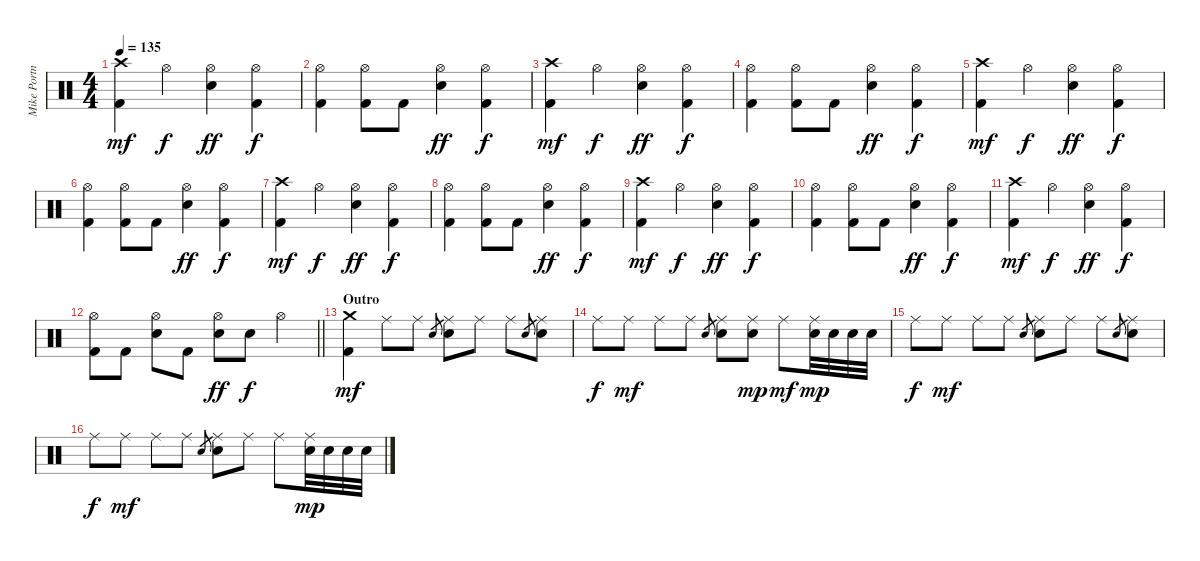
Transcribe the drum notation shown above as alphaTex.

\track ("Mike Portnoy" "Mike Portn") {instrument percussion}
\staff {score}
\articulation defaults
\ts (4 4)
\tempo 135
\clef neutral
\ks c
("Crash high (hit)" "Kick (hit) 2").4{dy mf} "Hi-Hat (open)".4{dy f} ("Hi-Hat (open)" "Electric Snare (hit)").4{dy ff} ("Hi-Hat (open)" "Kick (hit) 2").4{dy f} |
("Hi-Hat (open)" "Kick (hit) 2").4 ("Hi-Hat (open)" "Kick (hit) 2").8 "Kick (hit) 2".8 ("Hi-Hat (open)" "Electric Snare (hit)").4{dy ff} ("Hi-Hat (open)" "Kick (hit) 2").4{dy f} |
("Crash high (hit)" "Kick (hit) 2").4{dy mf} "Hi-Hat (open)".4{dy f} ("Hi-Hat (open)" "Electric Snare (hit)").4{dy ff} ("Hi-Hat (open)" "Kick (hit) 2").4{dy f} |
("Hi-Hat (open)" "Kick (hit) 2").4 ("Hi-Hat (open)" "Kick (hit) 2").8 "Kick (hit) 2".8 ("Hi-Hat (open)" "Electric Snare (hit)").4{dy ff} ("Hi-Hat (open)" "Kick (hit) 2").4{dy f} |
("Crash high (hit)" "Kick (hit) 2").4{dy mf} "Hi-Hat (open)".4{dy f} ("Hi-Hat (open)" "Electric Snare (hit)").4{dy ff} ("Hi-Hat (open)" "Kick (hit) 2").4{dy f} |
("Hi-Hat (open)" "Kick (hit) 2").4 ("Hi-Hat (open)" "Kick (hit) 2").8 "Kick (hit) 2".8 ("Hi-Hat (open)" "Electric Snare (hit)").4{dy ff} ("Hi-Hat (open)" "Kick (hit) 2").4{dy f} |
("Crash high (hit)" "Kick (hit) 2").4{dy mf} "Hi-Hat (open)".4{dy f} ("Hi-Hat (open)" "Electric Snare (hit)").4{dy ff} ("Hi-Hat (open)" "Kick (hit) 2").4{dy f} |
("Hi-Hat (open)" "Kick (hit) 2").4 ("Hi-Hat (open)" "Kick (hit) 2").8 "Kick (hit) 2".8 ("Hi-Hat (open)" "Electric Snare (hit)").4{dy ff} ("Hi-Hat (open)" "Kick (hit) 2").4{dy f} |
("Crash high (hit)" "Kick (hit) 2").4{dy mf} "Hi-Hat (open)".4{dy f} ("Hi-Hat (open)" "Electric Snare (hit)").4{dy ff} ("Hi-Hat (open)" "Kick (hit) 2").4{dy f} |
("Hi-Hat (open)" "Kick (hit) 2").4 ("Hi-Hat (open)" "Kick (hit) 2").8 "Kick (hit) 2".8 ("Hi-Hat (open)" "Electric Snare (hit)").4{dy ff} ("Hi-Hat (open)" "Kick (hit) 2").4{dy f} |
("Crash high (hit)" "Kick (hit) 2").4{dy mf} "Hi-Hat (open)".4{dy f} ("Hi-Hat (open)" "Electric Snare (hit)").4{dy ff} ("Hi-Hat (open)" "Kick (hit) 2").4{dy f} |
\barLineRight lightlight
("Hi-Hat (open)" "Kick (hit) 2").8 "Kick (hit) 2".8 ("Hi-Hat (open)" "Electric Snare (hit)").8 "Kick (hit) 2".8 ("Hi-Hat (open)" "Electric Snare (hit)").8{dy ff} "Electric Snare (hit)".8{dy f} "Hi-Hat (open)".4 |
\section ("" "Outro")
("Crash medium (hit)" "Kick (hit) 2").4{dy mf} "Ride (middle)".8 "Ride (middle)".8 "Electric Snare (hit)".8{gr} ("Ride (middle)" "Electric Snare (hit)").8 "Ride (middle)".8 "Ride (middle)".8 "Electric Snare (hit)".8{gr} ("Ride (middle)" "Electric Snare (hit)").8 |
"Ride (middle)".8{dy f} "Ride (middle)".8{dy mf} "Ride (middle)".8 "Ride (middle)".8 "Electric Snare (hit)".8{gr} ("Ride (middle)" "Electric Snare (hit)").8 ("Ride (middle)" "Electric Snare (hit)").8{dy mp} "Ride (middle)".8{dy mf} ("Ride (middle)" "Electric Snare (hit)").32{dy mp} "Electric Snare (hit)".32 "Electric Snare (hit)".32 "Electric Snare (hit)".32 |
"Ride (middle)".8{dy f} "Ride (middle)".8{dy mf} "Ride (middle)".8 "Ride (middle)".8 "Electric Snare (hit)".8{gr} ("Ride (middle)" "Electric Snare (hit)").8 "Ride (middle)".8 "Ride (middle)".8 "Electric Snare (hit)".8{gr} ("Ride (middle)" "Electric Snare (hit)").8 |
"Ride (middle)".8{dy f} "Ride (middle)".8{dy mf} "Ride (middle)".8 "Ride (middle)".8 "Electric Snare (hit)".8{gr} ("Ride (middle)" "Electric Snare (hit)").8 "Ride (middle)".8 "Ride (middle)".8 ("Ride (middle)" "Electric Snare (hit)").32{dy mp} "Electric Snare (hit)".32 "Electric Snare (hit)".32 "Electric Snare (hit)".32
